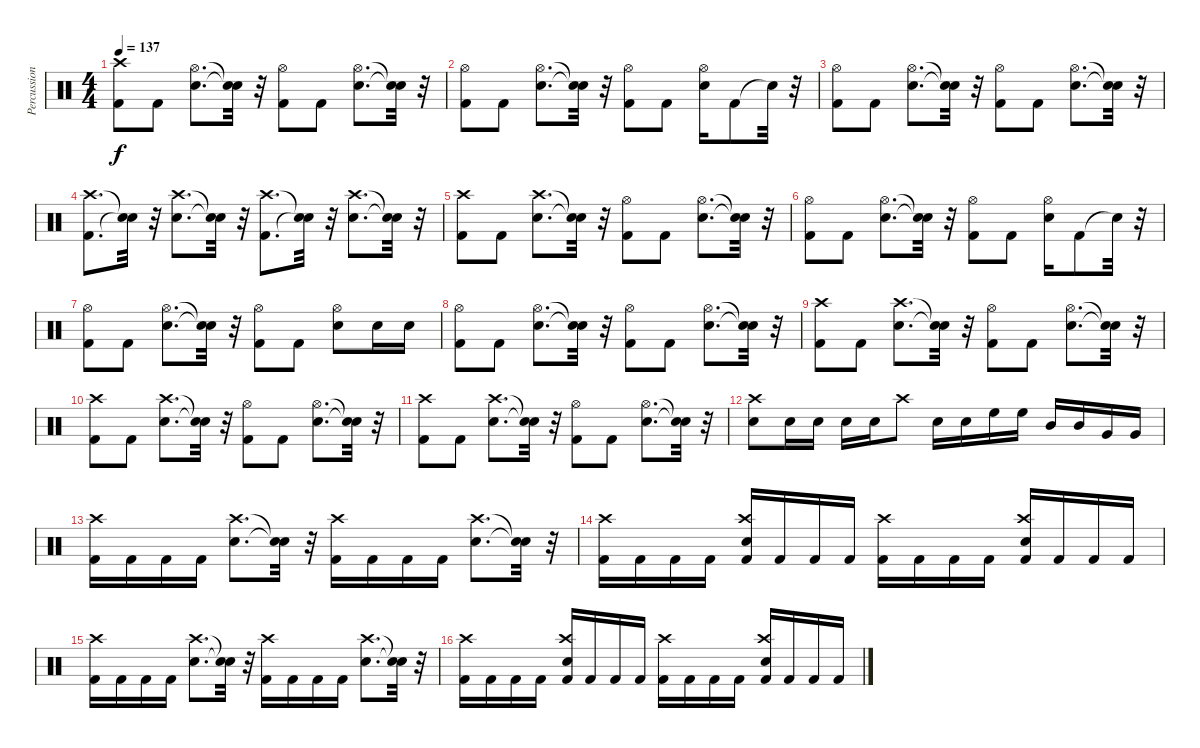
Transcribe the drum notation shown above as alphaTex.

\track ("Percussion" "Percussion") {instrument percussion}
\staff {score}
\articulation defaults
\ts (4 4)
\tempo 137
\clef neutral
\ks c
("Kick (hit) 2" "Crash high (hit)").8{dy f} "Kick (hit) 2".8 ("Snare (hit) 2" "Hi-Hat (open)").8{d} ("Snare (hit)"{t} "Snare (hit)"{t}).32 r.32 ("Kick (hit) 2" "Hi-Hat (open)").8 "Kick (hit) 2".8 ("Hi-Hat (open)" "Snare (hit) 2").8{d} ("Snare (hit)"{t} "Snare (hit)"{t}).32 r.32 |
("Kick (hit) 2" "Hi-Hat (open)").8 "Kick (hit) 2".8 ("Snare (hit) 2" "Hi-Hat (open)").8{d} ("Snare (hit)"{t} "Snare (hit)"{t}).32 r.32 ("Kick (hit) 2" "Hi-Hat (open)").8 "Kick (hit) 2".8 ("Hi-Hat (open)" "Snare (hit) 2").16 "Kick (hit) 2".8 "Snare (hit)"{t}.32 r.32 |
("Kick (hit) 2" "Hi-Hat (open)").8 "Kick (hit) 2".8 ("Snare (hit) 2" "Hi-Hat (open)").8{d} ("Snare (hit)"{t} "Snare (hit)"{t}).32 r.32 ("Kick (hit) 2" "Hi-Hat (open)").8 "Kick (hit) 2".8 ("Hi-Hat (open)" "Snare (hit) 2").8{d} ("Snare (hit)"{t} "Snare (hit)"{t}).32 r.32 |
("Crash high (hit)" "Kick (hit) 2").8{d} ("Snare (hit)"{t} "Snare (hit)"{t}).32 r.32 ("Snare (hit) 2" "Crash high (hit)").8{d} ("Snare (hit)"{t} "Snare (hit)"{t}).32 r.32 ("Crash high (hit)" "Kick (hit) 2").8{d} ("Snare (hit)"{t} "Snare (hit)"{t}).32 r.32 ("Crash high (hit)" "Snare (hit) 2").8{d} ("Snare (hit)"{t} "Snare (hit)"{t}).32 r.32 |
("Kick (hit) 2" "Crash high (hit)").8 "Kick (hit) 2".8 ("Snare (hit) 2" "Crash high (hit)").8{d} ("Snare (hit)"{t} "Snare (hit)"{t}).32 r.32 ("Kick (hit) 2" "Hi-Hat (open)").8 "Kick (hit) 2".8 ("Hi-Hat (open)" "Snare (hit) 2").8{d} ("Snare (hit)"{t} "Snare (hit)"{t}).32 r.32 |
("Kick (hit) 2" "Hi-Hat (open)").8 "Kick (hit) 2".8 ("Snare (hit) 2" "Hi-Hat (open)").8{d} ("Snare (hit)"{t} "Snare (hit)"{t}).32 r.32 ("Kick (hit) 2" "Hi-Hat (open)").8 "Kick (hit) 2".8 ("Hi-Hat (open)" "Snare (hit) 2").16 "Kick (hit) 2".8 "Snare (hit)"{t}.32 r.32 |
("Kick (hit) 2" "Hi-Hat (open)").8 "Kick (hit) 2".8 ("Snare (hit) 2" "Hi-Hat (open)").8{d} ("Snare (hit)"{t} "Snare (hit)"{t}).32 r.32 ("Kick (hit) 2" "Hi-Hat (open)").8 "Kick (hit) 2".8 ("Hi-Hat (open)" "Snare (hit) 2").8 "Snare (hit) 2".16 "Snare (hit) 2".16 |
("Kick (hit) 2" "Hi-Hat (open)").8 "Kick (hit) 2".8 ("Snare (hit) 2" "Hi-Hat (open)").8{d} ("Snare (hit)"{t} "Snare (hit)"{t}).32 r.32 ("Kick (hit) 2" "Hi-Hat (open)").8 "Kick (hit) 2".8 ("Hi-Hat (open)" "Snare (hit) 2").8{d} ("Snare (hit)"{t} "Snare (hit)"{t}).32 r.32 |
("Kick (hit) 2" "Crash high (hit)").8 "Kick (hit) 2".8 ("Snare (hit) 2" "Crash high (hit)").8{d} ("Snare (hit)"{t} "Snare (hit)"{t}).32 r.32 ("Kick (hit) 2" "Hi-Hat (open)").8 "Kick (hit) 2".8 ("Hi-Hat (open)" "Snare (hit) 2").8{d} ("Snare (hit)"{t} "Snare (hit)"{t}).32 r.32 |
("Kick (hit) 2" "Crash high (hit)").8 "Kick (hit) 2".8 ("Snare (hit) 2" "Crash high (hit)").8{d} ("Snare (hit)"{t} "Snare (hit)"{t}).32 r.32 ("Kick (hit) 2" "Hi-Hat (open)").8 "Kick (hit) 2".8 ("Hi-Hat (open)" "Snare (hit) 2").8{d} ("Snare (hit)"{t} "Snare (hit)"{t}).32 r.32 |
("Kick (hit) 2" "Crash high (hit)").8 "Kick (hit) 2".8 ("Snare (hit) 2" "Crash high (hit)").8{d} ("Snare (hit)"{t} "Snare (hit)"{t}).32 r.32 ("Kick (hit) 2" "Hi-Hat (open)").8 "Kick (hit) 2".8 ("Hi-Hat (open)" "Snare (hit) 2").8{d} ("Snare (hit)"{t} "Snare (hit)"{t}).32 r.32 |
("Snare (hit) 2" "Crash high (hit)").8 "Snare (hit) 2".16 "Snare (hit) 2".16 "Snare (hit) 2".16 "Snare (hit) 2".16 "Crash high (hit)".8 "Snare (hit) 2".16 "Snare (hit) 2".16 "High Floor Tom (hit)".16 "High Floor Tom (hit)".16 "Mid Tom (hit)".16 "Mid Tom (hit)".16 "Very Low Tom (hit)".16 "Very Low Tom (hit)".16 |
("Kick (hit) 2" "Crash high (hit)").16 "Kick (hit) 2".16 "Kick (hit) 2".16 "Kick (hit) 2".16 ("Snare (hit) 2" "Crash high (hit)").8{d} ("Snare (hit)"{t} "Snare (hit)"{t}).32 r.32 ("Kick (hit) 2" "Crash high (hit)").16 "Kick (hit) 2".16 "Kick (hit) 2".16 "Kick (hit) 2".16 ("Snare (hit) 2" "Crash high (hit)").8{d} ("Snare (hit)"{t} "Snare (hit)"{t}).32 r.32 |
("Kick (hit) 2" "Crash high (hit)").16 "Kick (hit) 2".16 "Kick (hit) 2".16 "Kick (hit) 2".16 ("Kick (hit) 2" "Crash high (hit)" "Snare (hit) 2").16 "Kick (hit) 2".16 "Kick (hit) 2".16 "Kick (hit) 2".16 ("Kick (hit) 2" "Crash high (hit)").16 "Kick (hit) 2".16 "Kick (hit) 2".16 "Kick (hit) 2".16 ("Kick (hit) 2" "Crash high (hit)" "Snare (hit) 2").16 "Kick (hit) 2".16 "Kick (hit) 2".16 "Kick (hit) 2".16 |
("Kick (hit) 2" "Crash high (hit)").16 "Kick (hit) 2".16 "Kick (hit) 2".16 "Kick (hit) 2".16 ("Snare (hit) 2" "Crash high (hit)").8{d} ("Snare (hit)"{t} "Snare (hit)"{t}).32 r.32 ("Kick (hit) 2" "Crash high (hit)").16 "Kick (hit) 2".16 "Kick (hit) 2".16 "Kick (hit) 2".16 ("Snare (hit) 2" "Crash high (hit)").8{d} ("Snare (hit)"{t} "Snare (hit)"{t}).32 r.32 |
("Kick (hit) 2" "Crash high (hit)").16 "Kick (hit) 2".16 "Kick (hit) 2".16 "Kick (hit) 2".16 ("Kick (hit) 2" "Crash high (hit)" "Snare (hit) 2").16 "Kick (hit) 2".16 "Kick (hit) 2".16 "Kick (hit) 2".16 ("Kick (hit) 2" "Crash high (hit)").16 "Kick (hit) 2".16 "Kick (hit) 2".16 "Kick (hit) 2".16 ("Kick (hit) 2" "Crash high (hit)" "Snare (hit) 2").16 "Kick (hit) 2".16 "Kick (hit) 2".16 "Kick (hit) 2".16
